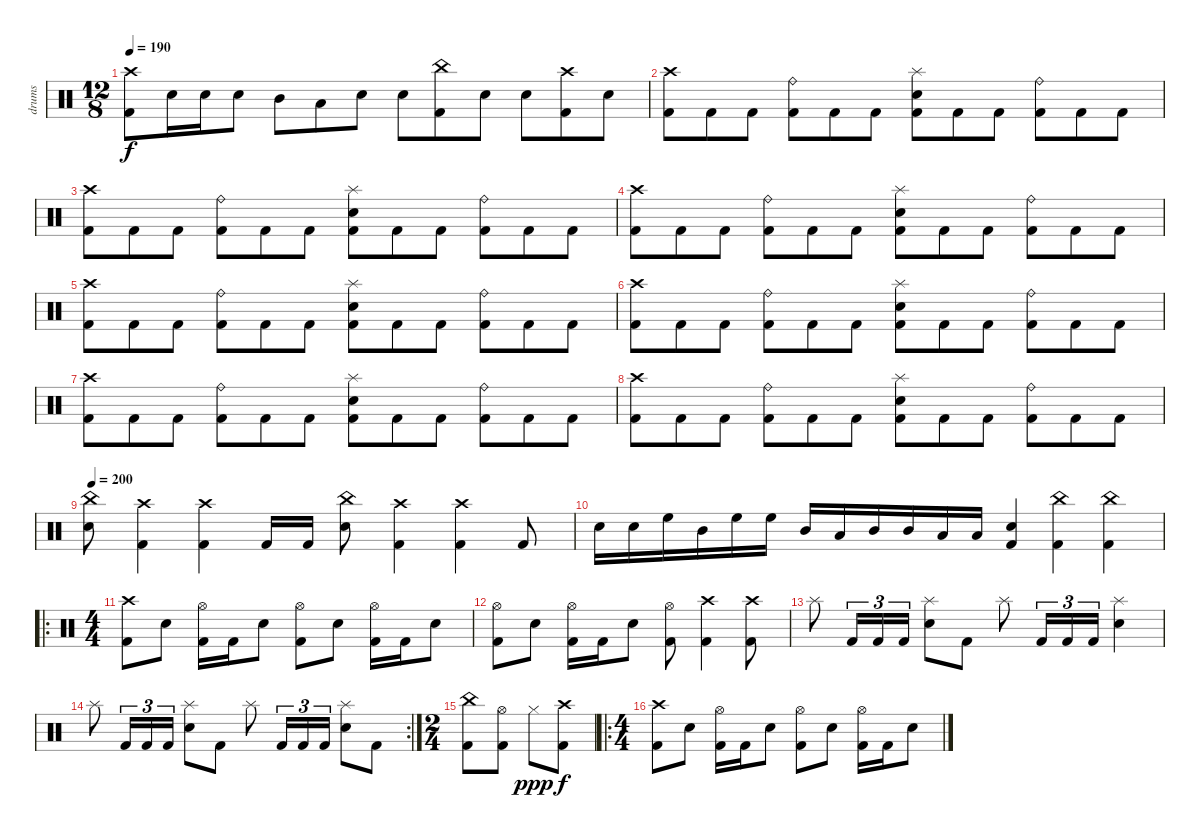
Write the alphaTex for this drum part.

\track ("drums" "drums") {instrument percussion}
\staff {score}
\articulation defaults
\ts (12 8)
\tempo 190
\clef neutral
\ks c
("Crash high (hit)" "Kick (hit) 2").8{dy f} "Electric Snare (hit)".16 "Electric Snare (hit)".16 "Electric Snare (hit)".8 "Mid Tom (hit)".8 "Low Tom (hit)".8 "Electric Snare (hit)".8 "Electric Snare (hit)".8 ("China (hit)" "Kick (hit) 2").8 "Electric Snare (hit)".8 "Electric Snare (hit)".8 ("Crash high (hit)" "Kick (hit) 2").8 "Electric Snare (hit)".8 |
("Crash high (hit)" "Kick (hit) 2").8 "Kick (hit) 2".8 "Kick (hit) 2".8 ("Ride (bell)" "Kick (hit) 2").8 "Kick (hit) 2".8 "Kick (hit) 2".8 ("Splash (hit)" "Electric Snare (hit)" "Kick (hit) 2").8 "Kick (hit) 2".8 "Kick (hit) 2".8 ("Ride (bell)" "Kick (hit) 2").8 "Kick (hit) 2".8 "Kick (hit) 2".8 |
("Crash high (hit)" "Kick (hit) 2").8 "Kick (hit) 2".8 "Kick (hit) 2".8 ("Ride (bell)" "Kick (hit) 2").8 "Kick (hit) 2".8 "Kick (hit) 2".8 ("Splash (hit)" "Electric Snare (hit)" "Kick (hit) 2").8 "Kick (hit) 2".8 "Kick (hit) 2".8 ("Ride (bell)" "Kick (hit) 2").8 "Kick (hit) 2".8 "Kick (hit) 2".8 |
("Crash high (hit)" "Kick (hit) 2").8 "Kick (hit) 2".8 "Kick (hit) 2".8 ("Ride (bell)" "Kick (hit) 2").8 "Kick (hit) 2".8 "Kick (hit) 2".8 ("Splash (hit)" "Electric Snare (hit)" "Kick (hit) 2").8 "Kick (hit) 2".8 "Kick (hit) 2".8 ("Ride (bell)" "Kick (hit) 2").8 "Kick (hit) 2".8 "Kick (hit) 2".8 |
("Crash high (hit)" "Kick (hit) 2").8 "Kick (hit) 2".8 "Kick (hit) 2".8 ("Ride (bell)" "Kick (hit) 2").8 "Kick (hit) 2".8 "Kick (hit) 2".8 ("Splash (hit)" "Electric Snare (hit)" "Kick (hit) 2").8 "Kick (hit) 2".8 "Kick (hit) 2".8 ("Ride (bell)" "Kick (hit) 2").8 "Kick (hit) 2".8 "Kick (hit) 2".8 |
("Crash high (hit)" "Kick (hit) 2").8 "Kick (hit) 2".8 "Kick (hit) 2".8 ("Ride (bell)" "Kick (hit) 2").8 "Kick (hit) 2".8 "Kick (hit) 2".8 ("Splash (hit)" "Electric Snare (hit)" "Kick (hit) 2").8 "Kick (hit) 2".8 "Kick (hit) 2".8 ("Ride (bell)" "Kick (hit) 2").8 "Kick (hit) 2".8 "Kick (hit) 2".8 |
("Crash high (hit)" "Kick (hit) 2").8 "Kick (hit) 2".8 "Kick (hit) 2".8 ("Ride (bell)" "Kick (hit) 2").8 "Kick (hit) 2".8 "Kick (hit) 2".8 ("Splash (hit)" "Electric Snare (hit)" "Kick (hit) 2").8 "Kick (hit) 2".8 "Kick (hit) 2".8 ("Ride (bell)" "Kick (hit) 2").8 "Kick (hit) 2".8 "Kick (hit) 2".8 |
("Crash high (hit)" "Kick (hit) 2").8 "Kick (hit) 2".8 "Kick (hit) 2".8 ("Ride (bell)" "Kick (hit) 2").8 "Kick (hit) 2".8 "Kick (hit) 2".8 ("Splash (hit)" "Electric Snare (hit)" "Kick (hit) 2").8 "Kick (hit) 2".8 "Kick (hit) 2".8 ("Ride (bell)" "Kick (hit) 2").8 "Kick (hit) 2".8 "Kick (hit) 2".8 |
\tempo 200
("China (hit)" "Electric Snare (hit)").8 ("Crash high (hit)" "Kick (hit) 2").4 ("Crash high (hit)" "Kick (hit) 2").4 "Kick (hit) 2".16 "Kick (hit) 2".16 ("China (hit)" "Electric Snare (hit)").8 ("Crash high (hit)" "Kick (hit) 2").4 ("Crash high (hit)" "Kick (hit) 2").4 "Kick (hit) 2".8 |
"Electric Snare (hit)".16 "Electric Snare (hit)".16 "High Floor Tom (hit)".16 "Mid Tom (hit)".16 "High Floor Tom (hit)".16 "High Floor Tom (hit)".16 "Mid Tom (hit)".16 "Low Tom (hit)".16 "Mid Tom (hit)".16 "Mid Tom (hit)".16 "Low Tom (hit)".16 "Low Floor Tom (hit)".16 ("Electric Snare (hit)" "Kick (hit) 2").4 ("China (hit)" "Kick (hit) 2").4 ("China (hit)" "Kick (hit) 2").4 |
\ro
\ts (4 4)
("Crash high (hit)" "Kick (hit) 2").8 "Electric Snare (hit)".8 ("Hi-Hat (open)" "Kick (hit) 2").16 "Kick (hit) 2".16 "Electric Snare (hit)".8 ("Hi-Hat (open)" "Kick (hit) 2").8 "Electric Snare (hit)".8 ("Hi-Hat (open)" "Kick (hit) 2").16 "Kick (hit) 2".16 "Electric Snare (hit)".8 |
("Hi-Hat (open)" "Kick (hit) 2").8 "Electric Snare (hit)".8 ("Hi-Hat (open)" "Kick (hit) 2").16 "Kick (hit) 2".16 "Electric Snare (hit)".8 ("Hi-Hat (open)" "Kick (hit) 2").8 ("Crash high (hit)" "Kick (hit) 2").4 ("Crash high (hit)" "Kick (hit) 2").8 |
"Splash (hit)".8 "Kick (hit) 2".16{tu (3 2)} "Kick (hit) 2".16{tu (3 2)} "Kick (hit) 2".16{tu (3 2)} ("Splash (hit)" "Electric Snare (hit)").8 "Kick (hit) 2".8 "Splash (hit)".8 "Kick (hit) 2".16{tu (3 2)} "Kick (hit) 2".16{tu (3 2)} "Kick (hit) 2".16{tu (3 2)} ("Splash (hit)" "Electric Snare (hit)").4 |
\rc 2 "Splash (hit)".8 "Kick (hit) 2".16{tu (3 2)} "Kick (hit) 2".16{tu (3 2)} "Kick (hit) 2".16{tu (3 2)}
("Splash (hit)" "Electric Snare (hit)").8 "Kick (hit) 2".8 "Splash (hit)".8 "Kick (hit) 2".16{tu (3 2)} "Kick (hit) 2".16{tu (3 2)} "Kick (hit) 2".16{tu (3 2)} ("Splash (hit)" "Electric Snare (hit)").8 "Kick (hit) 2".8 |
\ts (2 4)
("China (hit)" "Kick (hit) 2").8 ("Hi-Hat (open)" "Kick (hit) 2").8 "Hi-Hat (closed)".8{dy ppp} ("Crash high (hit)" "Kick (hit) 2").8{dy f} |
\ro
\ts (4 4)
("Crash high (hit)" "Kick (hit) 2").8 "Electric Snare (hit)".8 ("Hi-Hat (open)" "Kick (hit) 2").16 "Kick (hit) 2".16 "Electric Snare (hit)".8 ("Hi-Hat (open)" "Kick (hit) 2").8 "Electric Snare (hit)".8 ("Hi-Hat (open)" "Kick (hit) 2").16 "Kick (hit) 2".16 "Electric Snare (hit)".8
